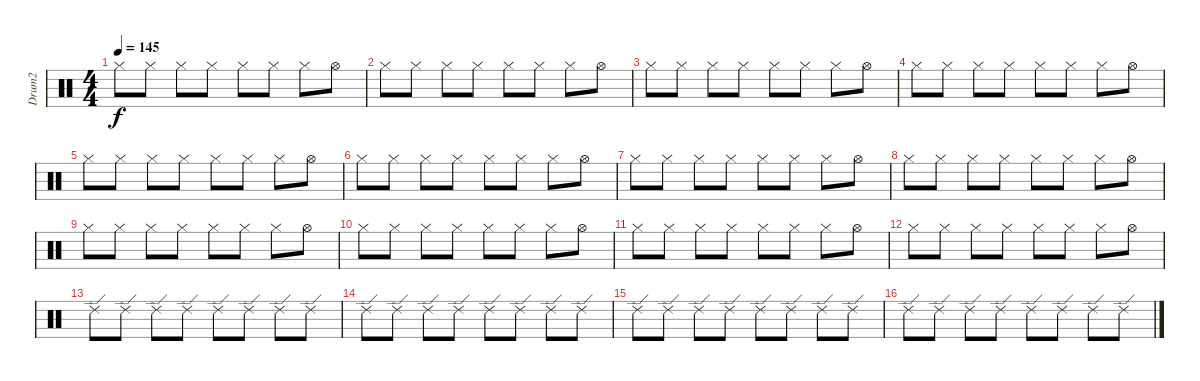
\track ("Drum2" "Drum2") {instrument percussion}
\staff {score}
\articulation defaults
\ts (4 4)
\tempo 145
\clef neutral
\ks c "Hi-Hat (closed)".8{dy f} "Hi-Hat (closed)".8 "Hi-Hat (closed)".8 "Hi-Hat (closed)".8 "Hi-Hat (closed)".8 "Hi-Hat (closed)".8 "Hi-Hat (closed)".8 "Hi-Hat (open)".8
|
"Hi-Hat (closed)".8 "Hi-Hat (closed)".8 "Hi-Hat (closed)".8 "Hi-Hat (closed)".8 "Hi-Hat (closed)".8 "Hi-Hat (closed)".8 "Hi-Hat (closed)".8 "Hi-Hat (open)".8 |
"Hi-Hat (closed)".8 "Hi-Hat (closed)".8 "Hi-Hat (closed)".8 "Hi-Hat (closed)".8 "Hi-Hat (closed)".8 "Hi-Hat (closed)".8 "Hi-Hat (closed)".8 "Hi-Hat (open)".8 |
"Hi-Hat (closed)".8 "Hi-Hat (closed)".8 "Hi-Hat (closed)".8 "Hi-Hat (closed)".8 "Hi-Hat (closed)".8 "Hi-Hat (closed)".8 "Hi-Hat (closed)".8 "Hi-Hat (open)".8 |
"Hi-Hat (closed)".8 "Hi-Hat (closed)".8 "Hi-Hat (closed)".8 "Hi-Hat (closed)".8 "Hi-Hat (closed)".8 "Hi-Hat (closed)".8 "Hi-Hat (closed)".8 "Hi-Hat (open)".8 |
"Hi-Hat (closed)".8 "Hi-Hat (closed)".8 "Hi-Hat (closed)".8 "Hi-Hat (closed)".8 "Hi-Hat (closed)".8 "Hi-Hat (closed)".8 "Hi-Hat (closed)".8 "Hi-Hat (open)".8 |
"Hi-Hat (closed)".8 "Hi-Hat (closed)".8 "Hi-Hat (closed)".8 "Hi-Hat (closed)".8 "Hi-Hat (closed)".8 "Hi-Hat (closed)".8 "Hi-Hat (closed)".8 "Hi-Hat (open)".8 |
"Hi-Hat (closed)".8 "Hi-Hat (closed)".8 "Hi-Hat (closed)".8 "Hi-Hat (closed)".8 "Hi-Hat (closed)".8 "Hi-Hat (closed)".8 "Hi-Hat (closed)".8 "Hi-Hat (open)".8 |
"Hi-Hat (closed)".8 "Hi-Hat (closed)".8 "Hi-Hat (closed)".8 "Hi-Hat (closed)".8 "Hi-Hat (closed)".8 "Hi-Hat (closed)".8 "Hi-Hat (closed)".8 "Hi-Hat (open)".8 |
"Hi-Hat (closed)".8 "Hi-Hat (closed)".8 "Hi-Hat (closed)".8 "Hi-Hat (closed)".8 "Hi-Hat (closed)".8 "Hi-Hat (closed)".8 "Hi-Hat (closed)".8 "Hi-Hat (open)".8 |
"Hi-Hat (closed)".8 "Hi-Hat (closed)".8 "Hi-Hat (closed)".8 "Hi-Hat (closed)".8 "Hi-Hat (closed)".8 "Hi-Hat (closed)".8 "Hi-Hat (closed)".8 "Hi-Hat (open)".8 |
"Hi-Hat (closed)".8 "Hi-Hat (closed)".8 "Hi-Hat (closed)".8 "Hi-Hat (closed)".8 "Hi-Hat (closed)".8 "Hi-Hat (closed)".8 "Hi-Hat (closed)".8 "Hi-Hat (open)".8 |
"Ride (edge) 2".8 "Ride (edge) 2".8 "Ride (edge) 2".8 "Ride (edge) 2".8 "Ride (edge) 2".8 "Ride (edge) 2".8 "Ride (edge) 2".8 "Ride (edge) 2".8 |
"Ride (edge) 2".8 "Ride (edge) 2".8 "Ride (edge) 2".8 "Ride (edge) 2".8 "Ride (edge) 2".8 "Ride (edge) 2".8 "Ride (edge) 2".8 "Ride (edge) 2".8 |
"Ride (edge) 2".8 "Ride (edge) 2".8 "Ride (edge) 2".8 "Ride (edge) 2".8 "Ride (edge) 2".8 "Ride (edge) 2".8 "Ride (edge) 2".8 "Ride (edge) 2".8 |
"Ride (edge) 2".8 "Ride (edge) 2".8 "Ride (edge) 2".8 "Ride (edge) 2".8 "Ride (edge) 2".8 "Ride (edge) 2".8 "Ride (edge) 2".8 "Ride (edge) 2".8
